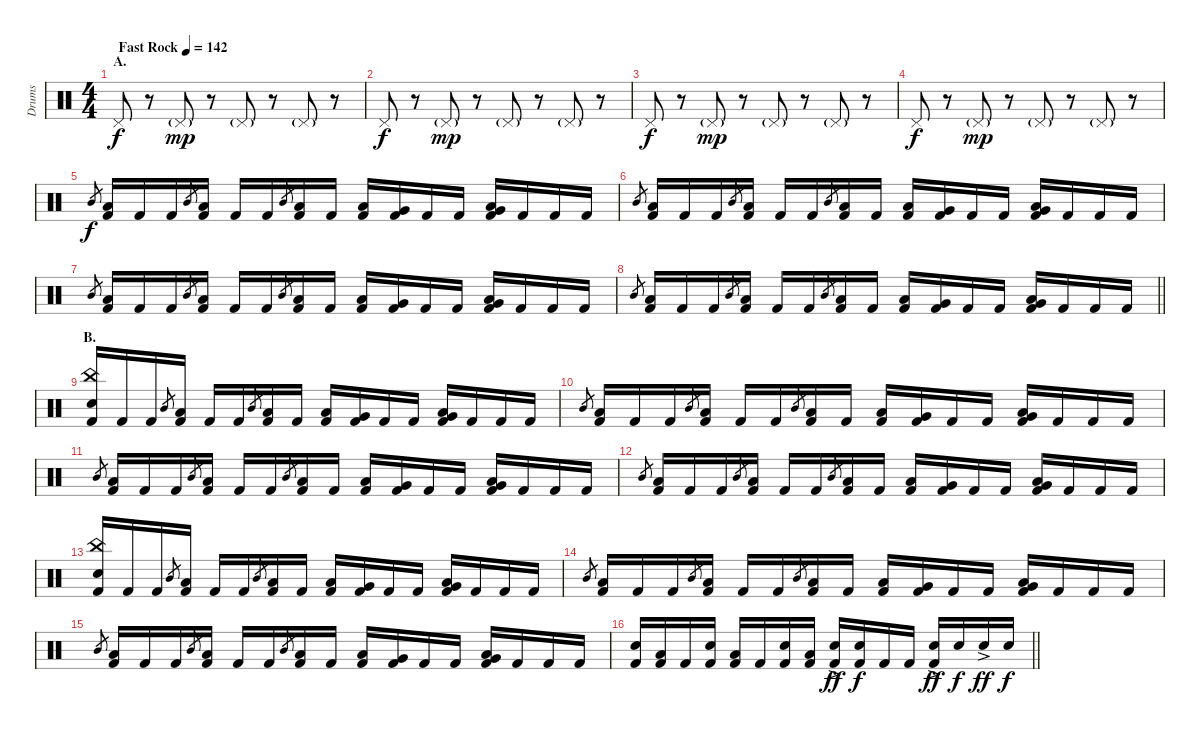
\track ("Drums" "Drums") {instrument percussion}
\staff {score}
\articulation defaults
\ts (4 4)
\section ("" "A.")
\tempo (142 "Fast Rock")
\clef neutral
\ks c "Pedal Hi-Hat (hit)".8{dy f}
r.8 "Pedal Hi-Hat (hit)"{g}.8{dy mp} r.8 "Pedal Hi-Hat (hit)"{g}.8 r.8 "Pedal Hi-Hat (hit)"{g}.8 r.8 |
"Pedal Hi-Hat (hit)".8{dy f} r.8 "Pedal Hi-Hat (hit)"{g}.8{dy mp} r.8 "Pedal Hi-Hat (hit)"{g}.8 r.8 "Pedal Hi-Hat (hit)"{g}.8 r.8 |
"Pedal Hi-Hat (hit)".8{dy f} r.8 "Pedal Hi-Hat (hit)"{g}.8{dy mp} r.8 "Pedal Hi-Hat (hit)"{g}.8 r.8 "Pedal Hi-Hat (hit)"{g}.8 r.8 |
"Pedal Hi-Hat (hit)".8{dy f} r.8 "Pedal Hi-Hat (hit)"{g}.8{dy mp} r.8 "Pedal Hi-Hat (hit)"{g}.8 r.8 "Pedal Hi-Hat (hit)"{g}.8 r.8 |
"Mid Tom (hit)".8{gr dy f} ("Low Tom (hit)" "Kick (hit) 2").16 "Kick (hit) 2".16 "Kick (hit) 2".16 "Mid Tom (hit)".8{gr} ("Low Tom (hit)" "Kick (hit) 2").16 "Kick (hit) 2".16 "Kick (hit) 2".16 "Mid Tom (hit)".8{gr} ("Low Tom (hit)" "Kick (hit) 2").16 "Kick (hit) 2".16 ("Low Floor Tom (hit)" "Kick (hit) 2").16 ("Very Low Tom (hit)" "Kick (hit) 2").16 "Kick (hit) 2".16 "Kick (hit) 2".16 ("Very Low Tom (hit)" "Low Floor Tom (hit)" "Kick (hit) 2").16 "Kick (hit) 2".16 "Kick (hit) 2".16 "Kick (hit) 2".16 |
"Mid Tom (hit)".8{gr} ("Low Tom (hit)" "Kick (hit) 2").16 "Kick (hit) 2".16 "Kick (hit) 2".16 "Mid Tom (hit)".8{gr} ("Low Tom (hit)" "Kick (hit) 2").16 "Kick (hit) 2".16 "Kick (hit) 2".16 "Mid Tom (hit)".8{gr} ("Low Tom (hit)" "Kick (hit) 2").16 "Kick (hit) 2".16 ("Low Floor Tom (hit)" "Kick (hit) 2").16 ("Very Low Tom (hit)" "Kick (hit) 2").16 "Kick (hit) 2".16 "Kick (hit) 2".16 ("Very Low Tom (hit)" "Low Floor Tom (hit)" "Kick (hit) 2").16 "Kick (hit) 2".16 "Kick (hit) 2".16 "Kick (hit) 2".16 |
"Mid Tom (hit)".8{gr} ("Low Tom (hit)" "Kick (hit) 2").16 "Kick (hit) 2".16 "Kick (hit) 2".16 "Mid Tom (hit)".8{gr} ("Low Tom (hit)" "Kick (hit) 2").16 "Kick (hit) 2".16 "Kick (hit) 2".16 "Mid Tom (hit)".8{gr} ("Low Tom (hit)" "Kick (hit) 2").16 "Kick (hit) 2".16 ("Low Floor Tom (hit)" "Kick (hit) 2").16 ("Very Low Tom (hit)" "Kick (hit) 2").16 "Kick (hit) 2".16 "Kick (hit) 2".16 ("Very Low Tom (hit)" "Low Floor Tom (hit)" "Kick (hit) 2").16 "Kick (hit) 2".16 "Kick (hit) 2".16 "Kick (hit) 2".16 |
\barLineRight lightlight "Mid Tom (hit)".8{gr}
("Low Tom (hit)" "Kick (hit) 2").16 "Kick (hit) 2".16 "Kick (hit) 2".16 "Mid Tom (hit)".8{gr} ("Low Tom (hit)" "Kick (hit) 2").16 "Kick (hit) 2".16 "Kick (hit) 2".16 "Mid Tom (hit)".8{gr} ("Low Tom (hit)" "Kick (hit) 2").16 "Kick (hit) 2".16 ("Low Floor Tom (hit)" "Kick (hit) 2").16 ("Very Low Tom (hit)" "Kick (hit) 2").16 "Kick (hit) 2".16 "Kick (hit) 2".16 ("Very Low Tom (hit)" "Low Floor Tom (hit)" "Kick (hit) 2").16 "Kick (hit) 2".16 "Kick (hit) 2".16 "Kick (hit) 2".16 |
\section ("" "B.")
("China (hit)" "Electric Snare (hit)" "Kick (hit) 2").16 "Kick (hit) 2".16 "Kick (hit) 2".16 "Mid Tom (hit)".8{gr} ("Low Tom (hit)" "Kick (hit) 2").16 "Kick (hit) 2".16 "Kick (hit) 2".16 "Mid Tom (hit)".8{gr} ("Low Tom (hit)" "Kick (hit) 2").16 "Kick (hit) 2".16 ("Low Floor Tom (hit)" "Kick (hit) 2").16 ("Very Low Tom (hit)" "Kick (hit) 2").16 "Kick (hit) 2".16 "Kick (hit) 2".16 ("Very Low Tom (hit)" "Low Floor Tom (hit)" "Kick (hit) 2").16 "Kick (hit) 2".16 "Kick (hit) 2".16 "Kick (hit) 2".16 |
"Mid Tom (hit)".8{gr} ("Low Tom (hit)" "Kick (hit) 2").16 "Kick (hit) 2".16 "Kick (hit) 2".16 "Mid Tom (hit)".8{gr} ("Low Tom (hit)" "Kick (hit) 2").16 "Kick (hit) 2".16 "Kick (hit) 2".16 "Mid Tom (hit)".8{gr} ("Low Tom (hit)" "Kick (hit) 2").16 "Kick (hit) 2".16 ("Low Floor Tom (hit)" "Kick (hit) 2").16 ("Very Low Tom (hit)" "Kick (hit) 2").16 "Kick (hit) 2".16 "Kick (hit) 2".16 ("Very Low Tom (hit)" "Low Floor Tom (hit)" "Kick (hit) 2").16 "Kick (hit) 2".16 "Kick (hit) 2".16 "Kick (hit) 2".16 |
"Mid Tom (hit)".8{gr} ("Low Tom (hit)" "Kick (hit) 2").16 "Kick (hit) 2".16 "Kick (hit) 2".16 "Mid Tom (hit)".8{gr} ("Low Tom (hit)" "Kick (hit) 2").16 "Kick (hit) 2".16 "Kick (hit) 2".16 "Mid Tom (hit)".8{gr} ("Low Tom (hit)" "Kick (hit) 2").16 "Kick (hit) 2".16 ("Low Floor Tom (hit)" "Kick (hit) 2").16 ("Very Low Tom (hit)" "Kick (hit) 2").16 "Kick (hit) 2".16 "Kick (hit) 2".16 ("Very Low Tom (hit)" "Low Floor Tom (hit)" "Kick (hit) 2").16 "Kick (hit) 2".16 "Kick (hit) 2".16 "Kick (hit) 2".16 |
"Mid Tom (hit)".8{gr} ("Low Tom (hit)" "Kick (hit) 2").16 "Kick (hit) 2".16 "Kick (hit) 2".16 "Mid Tom (hit)".8{gr} ("Low Tom (hit)" "Kick (hit) 2").16 "Kick (hit) 2".16 "Kick (hit) 2".16 "Mid Tom (hit)".8{gr} ("Low Tom (hit)" "Kick (hit) 2").16 "Kick (hit) 2".16 ("Low Floor Tom (hit)" "Kick (hit) 2").16 ("Very Low Tom (hit)" "Kick (hit) 2").16 "Kick (hit) 2".16 "Kick (hit) 2".16 ("Very Low Tom (hit)" "Low Floor Tom (hit)" "Kick (hit) 2").16 "Kick (hit) 2".16 "Kick (hit) 2".16 "Kick (hit) 2".16 |
("China (hit)" "Electric Snare (hit)" "Kick (hit) 2").16 "Kick (hit) 2".16 "Kick (hit) 2".16 "Mid Tom (hit)".8{gr} ("Low Tom (hit)" "Kick (hit) 2").16 "Kick (hit) 2".16 "Kick (hit) 2".16 "Mid Tom (hit)".8{gr} ("Low Tom (hit)" "Kick (hit) 2").16 "Kick (hit) 2".16 ("Low Floor Tom (hit)" "Kick (hit) 2").16 ("Very Low Tom (hit)" "Kick (hit) 2").16 "Kick (hit) 2".16 "Kick (hit) 2".16 ("Very Low Tom (hit)" "Low Floor Tom (hit)" "Kick (hit) 2").16 "Kick (hit) 2".16 "Kick (hit) 2".16 "Kick (hit) 2".16 |
"Mid Tom (hit)".8{gr} ("Low Tom (hit)" "Kick (hit) 2").16 "Kick (hit) 2".16 "Kick (hit) 2".16 "Mid Tom (hit)".8{gr} ("Low Tom (hit)" "Kick (hit) 2").16 "Kick (hit) 2".16 "Kick (hit) 2".16 "Mid Tom (hit)".8{gr} ("Low Tom (hit)" "Kick (hit) 2").16 "Kick (hit) 2".16 ("Low Floor Tom (hit)" "Kick (hit) 2").16 ("Very Low Tom (hit)" "Kick (hit) 2").16 "Kick (hit) 2".16 "Kick (hit) 2".16 ("Very Low Tom (hit)" "Low Floor Tom (hit)" "Kick (hit) 2").16 "Kick (hit) 2".16 "Kick (hit) 2".16 "Kick (hit) 2".16 |
"Mid Tom (hit)".8{gr} ("Low Tom (hit)" "Kick (hit) 2").16 "Kick (hit) 2".16 "Kick (hit) 2".16 "Mid Tom (hit)".8{gr} ("Low Tom (hit)" "Kick (hit) 2").16 "Kick (hit) 2".16 "Kick (hit) 2".16 "Mid Tom (hit)".8{gr} ("Low Tom (hit)" "Kick (hit) 2").16 "Kick (hit) 2".16 ("Low Floor Tom (hit)" "Kick (hit) 2").16 ("Very Low Tom (hit)" "Kick (hit) 2").16 "Kick (hit) 2".16 "Kick (hit) 2".16 ("Very Low Tom (hit)" "Low Floor Tom (hit)" "Kick (hit) 2").16 "Kick (hit) 2".16 "Kick (hit) 2".16 "Kick (hit) 2".16 |
\barLineRight lightlight
("Electric Snare (hit)" "Kick (hit) 2").16 ("Low Floor Tom (hit)" "Kick (hit) 2").16 "Kick (hit) 2".16 ("Electric Snare (hit)" "Kick (hit) 2").16 ("Low Floor Tom (hit)" "Kick (hit) 2").16 "Kick (hit) 2".16 ("Electric Snare (hit)" "Kick (hit) 2").16 ("Low Floor Tom (hit)" "Kick (hit) 2").16 ("Electric Snare (hit)"{ac} "Kick (hit) 2").16{dy ff} ("Electric Snare (hit)" "Kick (hit) 2").16{dy f} "Kick (hit) 2".16 "Kick (hit) 2".16 ("Electric Snare (hit)"{ac} "Kick (hit) 2").16{dy ff} "Electric Snare (hit)".16{dy f} "Electric Snare (hit)"{ac}.16{dy ff} "Electric Snare (hit)".16{dy f}
